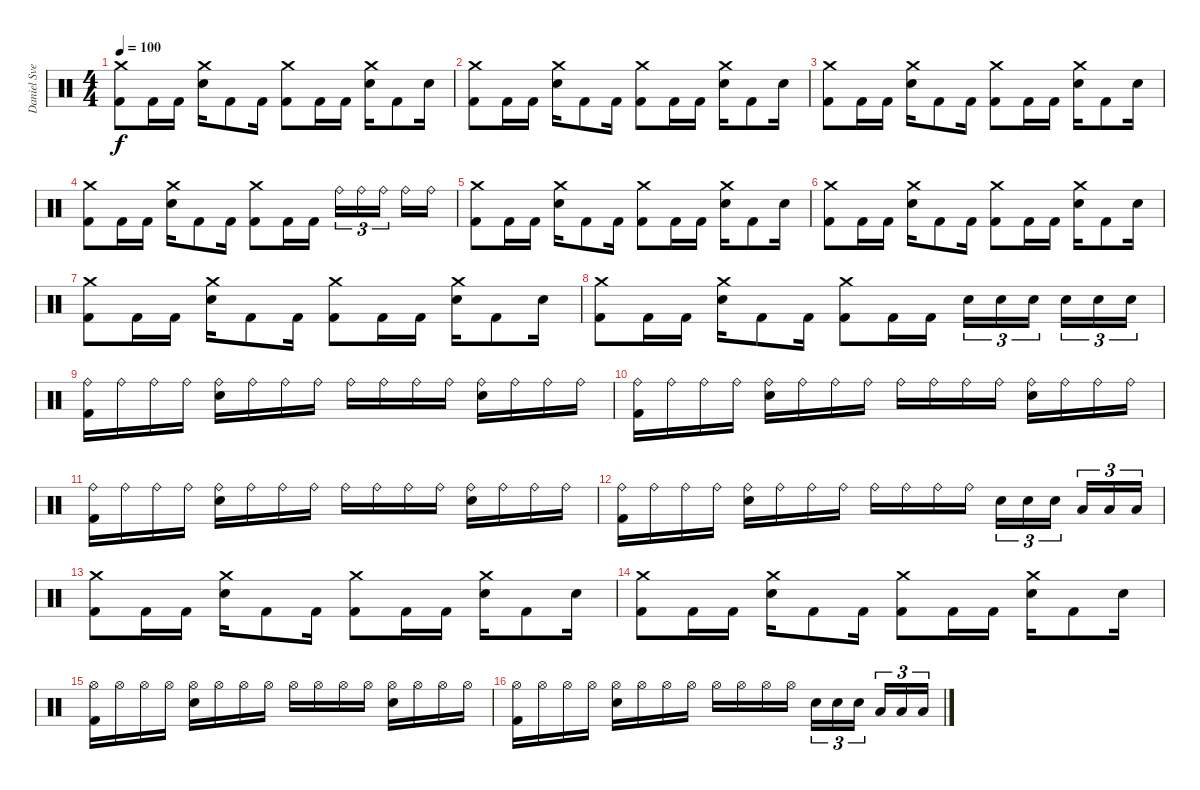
\track ("Daniel Svennson" "Daniel Sve") {instrument percussion}
\staff {score}
\articulation defaults
\ts (4 4)
\tempo 100
\clef neutral
\ks c
("Kick (hit) 2" "Crash medium (hit)").8{dy f} "Kick (hit) 2".16 "Kick (hit) 2".16 ("Snare (hit) 2" "Crash medium (hit)").16 "Kick (hit) 2".8 "Kick (hit) 2".16 ("Kick (hit) 2" "Crash medium (hit)").8 "Kick (hit) 2".16 "Kick (hit) 2".16 ("Snare (hit) 2" "Crash medium (hit)").16 "Kick (hit) 2".8 "Snare (hit) 2".16 |
("Kick (hit) 2" "Crash medium (hit)").8 "Kick (hit) 2".16 "Kick (hit) 2".16 ("Snare (hit) 2" "Crash medium (hit)").16 "Kick (hit) 2".8 "Kick (hit) 2".16 ("Kick (hit) 2" "Crash medium (hit)").8 "Kick (hit) 2".16 "Kick (hit) 2".16 ("Snare (hit) 2" "Crash medium (hit)").16 "Kick (hit) 2".8 "Snare (hit) 2".16 |
("Kick (hit) 2" "Crash medium (hit)").8 "Kick (hit) 2".16 "Kick (hit) 2".16 ("Snare (hit) 2" "Crash medium (hit)").16 "Kick (hit) 2".8 "Kick (hit) 2".16 ("Kick (hit) 2" "Crash medium (hit)").8 "Kick (hit) 2".16 "Kick (hit) 2".16 ("Snare (hit) 2" "Crash medium (hit)").16 "Kick (hit) 2".8 "Snare (hit) 2".16 |
("Kick (hit) 2" "Crash medium (hit)").8 "Kick (hit) 2".16 "Kick (hit) 2".16 ("Snare (hit) 2" "Crash medium (hit)").16 "Kick (hit) 2".8 "Kick (hit) 2".16 ("Kick (hit) 2" "Crash medium (hit)").8 "Kick (hit) 2".16 "Kick (hit) 2".16 "Ride (bell)".16{tu (3 2)} "Ride (bell)".16{tu (3 2)} "Ride (bell)".16{tu (3 2)} "Ride (bell)".16 "Ride (bell)".16 |
("Kick (hit) 2" "Crash medium (hit)").8 "Kick (hit) 2".16 "Kick (hit) 2".16 ("Snare (hit) 2" "Crash medium (hit)").16 "Kick (hit) 2".8 "Kick (hit) 2".16 ("Kick (hit) 2" "Crash medium (hit)").8 "Kick (hit) 2".16 "Kick (hit) 2".16 ("Snare (hit) 2" "Crash medium (hit)").16 "Kick (hit) 2".8 "Snare (hit) 2".16 |
("Kick (hit) 2" "Crash medium (hit)").8 "Kick (hit) 2".16 "Kick (hit) 2".16 ("Snare (hit) 2" "Crash medium (hit)").16 "Kick (hit) 2".8 "Kick (hit) 2".16 ("Kick (hit) 2" "Crash medium (hit)").8 "Kick (hit) 2".16 "Kick (hit) 2".16 ("Snare (hit) 2" "Crash medium (hit)").16 "Kick (hit) 2".8 "Snare (hit) 2".16 |
("Kick (hit) 2" "Crash medium (hit)").8 "Kick (hit) 2".16 "Kick (hit) 2".16 ("Snare (hit) 2" "Crash medium (hit)").16 "Kick (hit) 2".8 "Kick (hit) 2".16 ("Kick (hit) 2" "Crash medium (hit)").8 "Kick (hit) 2".16 "Kick (hit) 2".16 ("Snare (hit) 2" "Crash medium (hit)").16 "Kick (hit) 2".8 "Snare (hit) 2".16 |
("Kick (hit) 2" "Crash medium (hit)").8 "Kick (hit) 2".16 "Kick (hit) 2".16 ("Snare (hit) 2" "Crash medium (hit)").16 "Kick (hit) 2".8 "Kick (hit) 2".16 ("Kick (hit) 2" "Crash medium (hit)").8 "Kick (hit) 2".16 "Kick (hit) 2".16 "Snare (hit) 2".16{tu (3 2)} "Snare (hit) 2".16{tu (3 2)} "Snare (hit) 2".16{tu (3 2)} "Snare (hit) 2".16{tu (3 2)} "Snare (hit) 2".16{tu (3 2)} "Snare (hit) 2".16{tu (3 2)} |
("Ride (bell)" "Kick (hit) 2").16 "Ride (bell)".16 "Ride (bell)".16 "Ride (bell)".16 ("Ride (bell)" "Snare (hit) 2").16 "Ride (bell)".16 "Ride (bell)".16 "Ride (bell)".16 "Ride (bell)".16 "Ride (bell)".16 "Ride (bell)".16 "Ride (bell)".16 ("Ride (bell)" "Snare (hit) 2").16 "Ride (bell)".16 "Ride (bell)".16 "Ride (bell)".16 |
("Ride (bell)" "Kick (hit) 2").16 "Ride (bell)".16 "Ride (bell)".16 "Ride (bell)".16 ("Ride (bell)" "Snare (hit) 2").16 "Ride (bell)".16 "Ride (bell)".16 "Ride (bell)".16 "Ride (bell)".16 "Ride (bell)".16 "Ride (bell)".16 "Ride (bell)".16 ("Ride (bell)" "Snare (hit) 2").16 "Ride (bell)".16 "Ride (bell)".16 "Ride (bell)".16 |
("Ride (bell)" "Kick (hit) 2").16 "Ride (bell)".16 "Ride (bell)".16 "Ride (bell)".16 ("Ride (bell)" "Snare (hit) 2").16 "Ride (bell)".16 "Ride (bell)".16 "Ride (bell)".16 "Ride (bell)".16 "Ride (bell)".16 "Ride (bell)".16 "Ride (bell)".16 ("Ride (bell)" "Snare (hit) 2").16 "Ride (bell)".16 "Ride (bell)".16 "Ride (bell)".16 |
("Ride (bell)" "Kick (hit) 2").16 "Ride (bell)".16 "Ride (bell)".16 "Ride (bell)".16 ("Ride (bell)" "Snare (hit) 2").16 "Ride (bell)".16 "Ride (bell)".16 "Ride (bell)".16 "Ride (bell)".16 "Ride (bell)".16 "Ride (bell)".16 "Ride (bell)".16 "Snare (hit) 2".16{tu (3 2)} "Snare (hit) 2".16{tu (3 2)} "Snare (hit) 2".16{tu (3 2)} "Low Floor Tom (hit)".16{tu (3 2)} "Low Floor Tom (hit)".16{tu (3 2)} "Low Floor Tom (hit)".16{tu (3 2)} |
("Kick (hit) 2" "Crash medium (hit)").8 "Kick (hit) 2".16 "Kick (hit) 2".16 ("Snare (hit) 2" "Crash medium (hit)").16 "Kick (hit) 2".8 "Kick (hit) 2".16 ("Kick (hit) 2" "Crash medium (hit)").8 "Kick (hit) 2".16 "Kick (hit) 2".16 ("Snare (hit) 2" "Crash medium (hit)").16 "Kick (hit) 2".8 "Snare (hit) 2".16 |
("Kick (hit) 2" "Crash medium (hit)").8 "Kick (hit) 2".16 "Kick (hit) 2".16 ("Snare (hit) 2" "Crash medium (hit)").16 "Kick (hit) 2".8 "Kick (hit) 2".16 ("Kick (hit) 2" "Crash medium (hit)").8 "Kick (hit) 2".16 "Kick (hit) 2".16 ("Snare (hit) 2" "Crash medium (hit)").16 "Kick (hit) 2".8 "Snare (hit) 2".16 |
("Hi-Hat (open)" "Kick (hit) 2").16 "Hi-Hat (open)".16 "Hi-Hat (open)".16 "Hi-Hat (open)".16 ("Hi-Hat (open)" "Snare (hit) 2").16 "Hi-Hat (open)".16 "Hi-Hat (open)".16 "Hi-Hat (open)".16 "Hi-Hat (open)".16 "Hi-Hat (open)".16 "Hi-Hat (open)".16 "Hi-Hat (open)".16 ("Hi-Hat (open)" "Snare (hit) 2").16 "Hi-Hat (open)".16 "Hi-Hat (open)".16 "Hi-Hat (open)".16 |
("Hi-Hat (open)" "Kick (hit) 2").16 "Hi-Hat (open)".16 "Hi-Hat (open)".16 "Hi-Hat (open)".16 ("Hi-Hat (open)" "Snare (hit) 2").16 "Hi-Hat (open)".16 "Hi-Hat (open)".16 "Hi-Hat (open)".16 "Hi-Hat (open)".16 "Hi-Hat (open)".16 "Hi-Hat (open)".16 "Hi-Hat (open)".16 "Snare (hit) 2".16{tu (3 2)} "Snare (hit) 2".16{tu (3 2)} "Snare (hit) 2".16{tu (3 2)} "Low Floor Tom (hit)".16{tu (3 2)} "Low Floor Tom (hit)".16{tu (3 2)} "Low Floor Tom (hit)".16{tu (3 2)}
